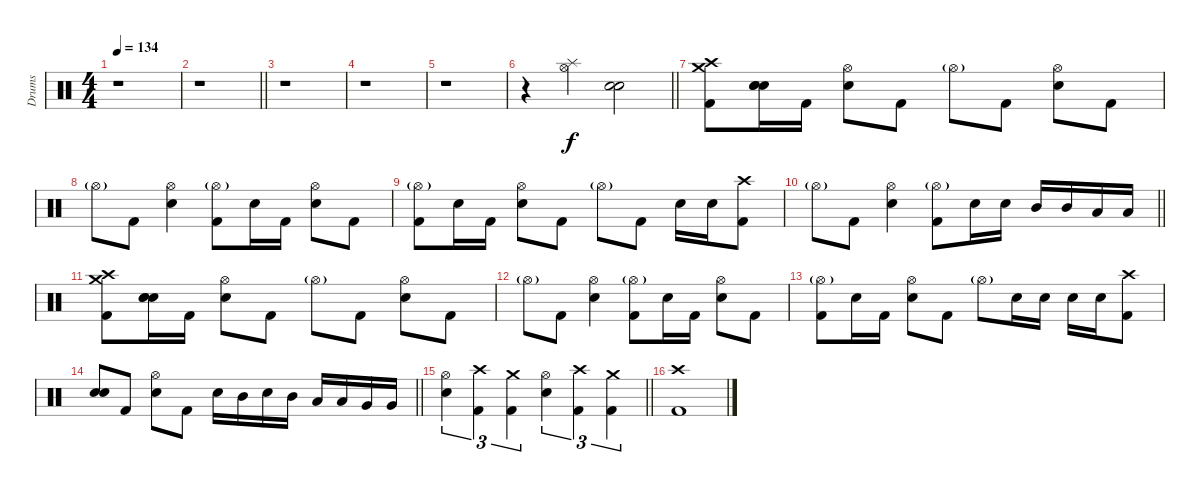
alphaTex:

\track ("Drums" "Drums") {instrument percussion}
\staff {score}
\articulation defaults
\ts (4 4)
\tempo 134
\clef neutral
\ks c
r.1{dy f} |
\barLineRight lightlight
r.1 |
r.1 |
r.1 |
r.1 |
\barLineRight lightlight
r.4 ("Splash (hit)" "Hi-Hat (open)").4 ("Snare (hit)" "Snare (hit)").2 |
("Crash high (hit)" "Crash medium (hit)" "Kick (hit) 2").8 ("Snare (hit)" "Snare (hit)" "Snare (hit)").16 "Kick (hit) 2".16 ("Hi-Hat (open)" "Snare (hit) 2").8 "Kick (hit) 2".8 "Hi-Hat (open)"{g}.8 "Kick (hit) 2".8 ("Hi-Hat (open)" "Snare (hit) 2").8 "Kick (hit) 2".8 |
"Hi-Hat (open)"{g}.8 "Kick (hit) 2".8 ("Hi-Hat (open)" "Snare (hit) 2").4 ("Hi-Hat (open)"{g} "Kick (hit) 2").8 "Snare (hit)".16 "Kick (hit) 2".16 ("Hi-Hat (open)" "Snare (hit) 2").8 "Kick (hit) 2".8 |
("Hi-Hat (open)"{g} "Kick (hit) 2").8 "Snare (hit)".16 "Kick (hit) 2".16 ("Hi-Hat (open)" "Snare (hit) 2").8 "Kick (hit) 2".8 "Hi-Hat (open)"{g}.8 "Kick (hit) 2".8 "Snare (hit) 2".16 "Snare (hit) 2".16 ("Crash high (hit)" "Kick (hit) 2").8 |
\barLineRight lightlight "Hi-Hat (open)"{g}.8 "Kick (hit) 2".8
("Hi-Hat (open)" "Snare (hit) 2").4 ("Hi-Hat (open)"{g} "Kick (hit) 2").8 "Snare (hit) 2".16 "Snare (hit) 2".16 "Mid Tom (hit)".16 "Mid Tom (hit)".16 "Low Tom (hit)".16 "Low Tom (hit)".16 |
("Crash high (hit)" "Crash medium (hit)" "Kick (hit) 2").8 ("Snare (hit)" "Snare (hit)" "Snare (hit)").16 "Kick (hit) 2".16 ("Hi-Hat (open)" "Snare (hit) 2").8 "Kick (hit) 2".8 "Hi-Hat (open)"{g}.8 "Kick (hit) 2".8 ("Hi-Hat (open)" "Snare (hit) 2").8 "Kick (hit) 2".8 |
"Hi-Hat (open)"{g}.8 "Kick (hit) 2".8 ("Hi-Hat (open)" "Snare (hit) 2").4 ("Hi-Hat (open)"{g} "Kick (hit) 2").8 "Snare (hit)".16 "Kick (hit) 2".16 ("Hi-Hat (open)" "Snare (hit) 2").8 "Kick (hit) 2".8 |
("Hi-Hat (open)"{g} "Kick (hit) 2").8 "Snare (hit)".16 "Kick (hit) 2".16 ("Hi-Hat (open)" "Snare (hit) 2").8 "Kick (hit) 2".8 "Hi-Hat (open)"{g}.8 "Snare (hit) 2".16 "Snare (hit) 2".16 "Snare (hit) 2".16 "Snare (hit) 2".16 ("Crash high (hit)" "Kick (hit) 2").8 |
\barLineRight lightlight
("Snare (hit)" "Snare (hit)").8 "Kick (hit) 2".8 ("Hi-Hat (open)" "Snare (hit) 2").8 "Kick (hit) 2".8 "Snare (hit) 2".16 "Mid Tom (hit)".16 "Snare (hit) 2".16 "Mid Tom (hit)".16 "Low Tom (hit)".16 "Low Tom (hit)".16 "Very Low Tom (hit)".16 "Very Low Tom (hit)".16 |
\barLineRight lightlight
("Hi-Hat (open)" "Snare (hit) 2").4{tu (3 2)} ("Crash high (hit)" "Kick (hit) 2").4{tu (3 2)} ("Crash medium (hit)" "Kick (hit) 2").4{tu (3 2)} ("Hi-Hat (open)" "Snare (hit) 2").4{tu (3 2)} ("Crash high (hit)" "Kick (hit) 2").4{tu (3 2)} ("Crash medium (hit)" "Kick (hit) 2").4{tu (3 2)} |
("Crash high (hit)" "Kick (hit) 2").1
